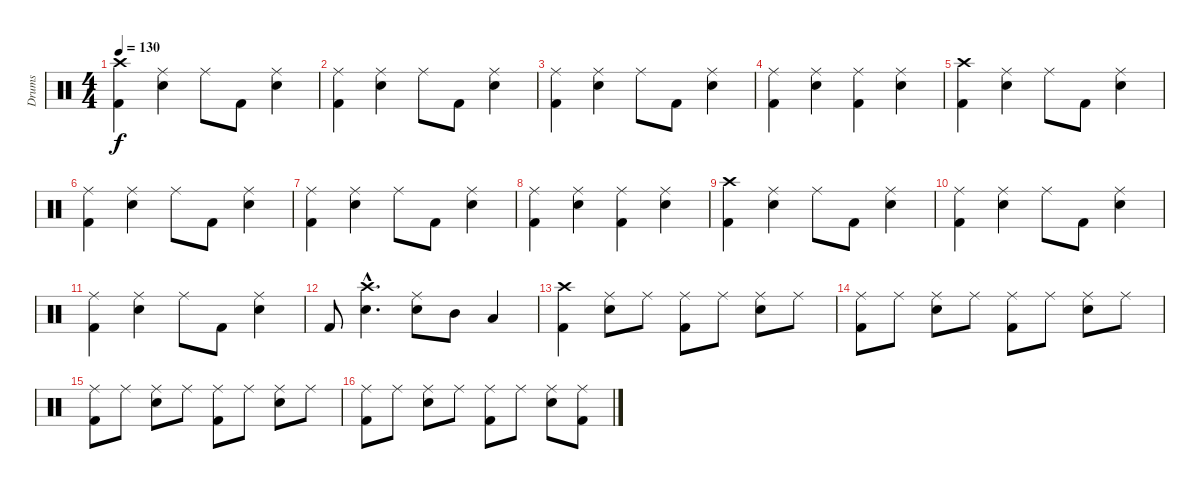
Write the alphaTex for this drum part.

\track ("Drums" "Drums") {instrument percussion}
\staff {score}
\articulation defaults
\ts (4 4)
\tempo 130
\clef neutral
\ks c
("Crash high (hit)" "Kick (hit) 2").4{dy f} ("Ride (middle)" "Electric Snare (hit)").4 "Ride (middle)".8 "Kick (hit) 2".8 ("Ride (middle)" "Electric Snare (hit)").4 |
("Ride (middle)" "Kick (hit) 2").4 ("Ride (middle)" "Electric Snare (hit)").4 "Ride (middle)".8 "Kick (hit) 2".8 ("Ride (middle)" "Electric Snare (hit)").4 |
("Ride (middle)" "Kick (hit) 2").4 ("Ride (middle)" "Electric Snare (hit)").4 "Ride (middle)".8 "Kick (hit) 2".8 ("Ride (middle)" "Electric Snare (hit)").4 |
("Ride (middle)" "Kick (hit) 2").4 ("Ride (middle)" "Electric Snare (hit)").4 ("Ride (middle)" "Kick (hit) 2").4 ("Ride (middle)" "Electric Snare (hit)").4 |
("Crash high (hit)" "Kick (hit) 2").4 ("Ride (middle)" "Electric Snare (hit)").4 "Ride (middle)".8 "Kick (hit) 2".8 ("Ride (middle)" "Electric Snare (hit)").4 |
("Ride (middle)" "Kick (hit) 2").4 ("Ride (middle)" "Electric Snare (hit)").4 "Ride (middle)".8 "Kick (hit) 2".8 ("Ride (middle)" "Electric Snare (hit)").4 |
("Ride (middle)" "Kick (hit) 2").4 ("Ride (middle)" "Electric Snare (hit)").4 "Ride (middle)".8 "Kick (hit) 2".8 ("Ride (middle)" "Electric Snare (hit)").4 |
("Ride (middle)" "Kick (hit) 2").4 ("Ride (middle)" "Electric Snare (hit)").4 ("Ride (middle)" "Kick (hit) 2").4 ("Ride (middle)" "Electric Snare (hit)").4 |
("Crash high (hit)" "Kick (hit) 2").4 ("Ride (middle)" "Electric Snare (hit)").4 "Ride (middle)".8 "Kick (hit) 2".8 ("Ride (middle)" "Electric Snare (hit)").4 |
("Ride (middle)" "Kick (hit) 2").4 ("Ride (middle)" "Electric Snare (hit)").4 "Ride (middle)".8 "Kick (hit) 2".8 ("Ride (middle)" "Electric Snare (hit)").4 |
("Ride (middle)" "Kick (hit) 2").4 ("Ride (middle)" "Electric Snare (hit)").4 "Ride (middle)".8 "Kick (hit) 2".8 ("Ride (middle)" "Electric Snare (hit)").4 |
"Kick (hit) 2".8 ("Crash high (hit)"{hac} "Electric Snare (hit)"{hac}).4{d} ("Ride (middle)" "Electric Snare (hit)").8 "Mid Tom (hit)".8 "Low Tom (hit)".4 |
("Crash high (hit)" "Kick (hit) 2").4 ("Ride (middle)" "Electric Snare (hit)").8 "Ride (middle)".8 ("Ride (middle)" "Kick (hit) 2").8 "Ride (middle)".8 ("Ride (middle)" "Electric Snare (hit)").8 "Ride (middle)".8 |
("Ride (middle)" "Kick (hit) 2").8 "Ride (middle)".8 ("Ride (middle)" "Electric Snare (hit)").8 "Ride (middle)".8 ("Ride (middle)" "Kick (hit) 2").8 "Ride (middle)".8 ("Ride (middle)" "Electric Snare (hit)").8 "Ride (middle)".8 |
("Ride (middle)" "Kick (hit) 2").8 "Ride (middle)".8 ("Ride (middle)" "Electric Snare (hit)").8 "Ride (middle)".8 ("Ride (middle)" "Kick (hit) 2").8 "Ride (middle)".8 ("Ride (middle)" "Electric Snare (hit)").8 "Ride (middle)".8 |
("Ride (middle)" "Kick (hit) 2").8 "Ride (middle)".8 ("Ride (middle)" "Electric Snare (hit)").8 "Ride (middle)".8 ("Ride (middle)" "Kick (hit) 2").8 "Ride (middle)".8 ("Ride (middle)" "Electric Snare (hit)").8 ("Ride (middle)" "Kick (hit) 2").8
